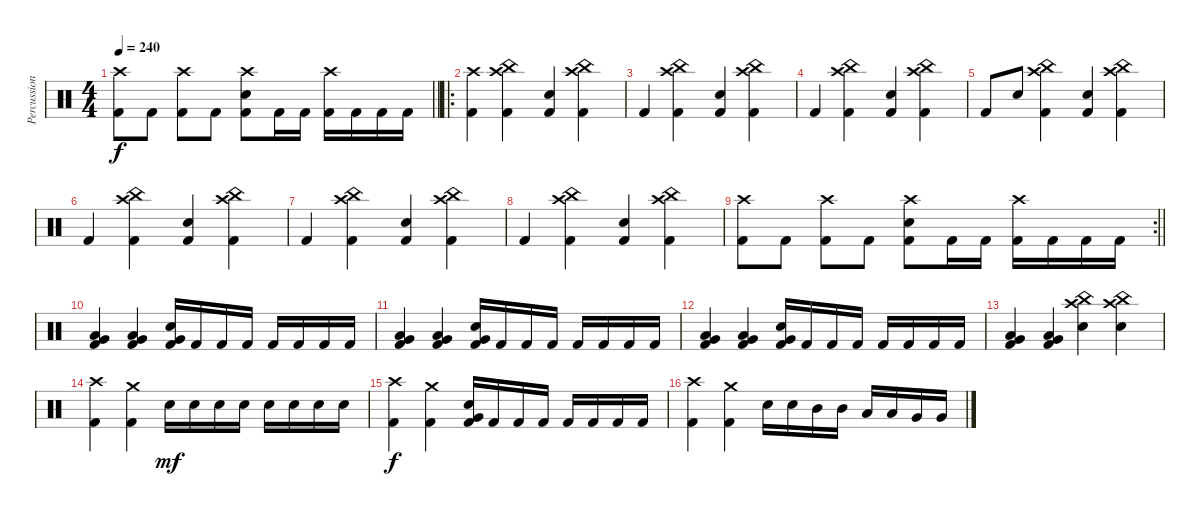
\track ("Percussion" "Percussion") {instrument percussion}
\staff {score}
\articulation defaults
\ts (4 4)
\tempo 240
\clef neutral
\barLineRight lightlight
\ks c
("Crash high (hit)" "Kick (hit) 2").8{dy f} "Kick (hit) 2".8 ("Crash high (hit)" "Kick (hit) 2").8 "Kick (hit) 2".8 ("Crash high (hit)" "Snare (hit) 2" "Kick (hit) 2").8 "Kick (hit) 2".16 "Kick (hit) 2".16 ("Crash high (hit)" "Kick (hit) 2").16 "Kick (hit) 2".16 "Kick (hit) 2".16 "Kick (hit) 2".16 |
\ro
("Crash high (hit)" "Kick (hit) 2").4 ("China (hit)" "Crash high (hit)" "Kick (hit) 2").4 ("Snare (hit) 2" "Kick (hit) 2").4 ("China (hit)" "Crash high (hit)" "Kick (hit) 2").4 |
"Kick (hit) 2".4 ("China (hit)" "Crash high (hit)" "Kick (hit) 2").4 ("Snare (hit) 2" "Kick (hit) 2").4 ("China (hit)" "Crash high (hit)" "Kick (hit) 2").4 |
"Kick (hit) 2".4 ("China (hit)" "Crash high (hit)" "Kick (hit) 2").4 ("Snare (hit) 2" "Kick (hit) 2").4 ("China (hit)" "Crash high (hit)" "Kick (hit) 2").4 |
"Kick (hit) 2".8 "Snare (hit) 2".8 ("China (hit)" "Crash high (hit)" "Kick (hit) 2").4 ("Snare (hit) 2" "Kick (hit) 2").4 ("China (hit)" "Crash high (hit)" "Kick (hit) 2").4 |
"Kick (hit) 2".4 ("China (hit)" "Crash high (hit)" "Kick (hit) 2").4 ("Snare (hit) 2" "Kick (hit) 2").4 ("China (hit)" "Crash high (hit)" "Kick (hit) 2").4 |
"Kick (hit) 2".4 ("China (hit)" "Crash high (hit)" "Kick (hit) 2").4 ("Snare (hit) 2" "Kick (hit) 2").4 ("China (hit)" "Crash high (hit)" "Kick (hit) 2").4 |
"Kick (hit) 2".4 ("China (hit)" "Crash high (hit)" "Kick (hit) 2").4 ("Snare (hit) 2" "Kick (hit) 2").4 ("China (hit)" "Crash high (hit)" "Kick (hit) 2").4 |
\rc 2
\barLineRight lightlight
("Crash high (hit)" "Kick (hit) 2").8 "Kick (hit) 2".8 ("Crash high (hit)" "Kick (hit) 2").8 "Kick (hit) 2".8 ("Crash high (hit)" "Snare (hit) 2" "Kick (hit) 2").8 "Kick (hit) 2".16 "Kick (hit) 2".16 ("Crash high (hit)" "Kick (hit) 2").16 "Kick (hit) 2".16 "Kick (hit) 2".16 "Kick (hit) 2".16 |
("Very Low Tom (hit)" "Low Floor Tom (hit)" "Kick (hit) 2").4 ("Very Low Tom (hit)" "Low Floor Tom (hit)" "Kick (hit) 2").4 ("Snare (hit) 2" "Very Low Tom (hit)" "Kick (hit) 2").16 "Kick (hit) 2".16 "Kick (hit) 2".16 "Kick (hit) 2".16 "Kick (hit) 2".16 "Kick (hit) 2".16 "Kick (hit) 2".16 "Kick (hit) 2".16 |
("Very Low Tom (hit)" "Low Floor Tom (hit)" "Kick (hit) 2").4 ("Very Low Tom (hit)" "Low Floor Tom (hit)" "Kick (hit) 2").4 ("Snare (hit) 2" "Very Low Tom (hit)" "Kick (hit) 2").16 "Kick (hit) 2".16 "Kick (hit) 2".16 "Kick (hit) 2".16 "Kick (hit) 2".16 "Kick (hit) 2".16 "Kick (hit) 2".16 "Kick (hit) 2".16 |
("Very Low Tom (hit)" "Low Floor Tom (hit)" "Kick (hit) 2").4 ("Very Low Tom (hit)" "Low Floor Tom (hit)" "Kick (hit) 2").4 ("Snare (hit) 2" "Very Low Tom (hit)" "Kick (hit) 2").16 "Kick (hit) 2".16 "Kick (hit) 2".16 "Kick (hit) 2".16 "Kick (hit) 2".16 "Kick (hit) 2".16 "Kick (hit) 2".16 "Kick (hit) 2".16 |
("Very Low Tom (hit)" "Low Floor Tom (hit)" "Kick (hit) 2").4 ("Very Low Tom (hit)" "Low Floor Tom (hit)" "Kick (hit) 2").4 ("China (hit)" "Crash high (hit)" "Snare (hit) 2").4 ("China (hit)" "Crash high (hit)" "Snare (hit) 2").4 |
("Crash high (hit)" "Kick (hit) 2").4 ("Crash medium (hit)" "Kick (hit) 2").4 "Snare (hit) 2".16{dy mf} "Snare (hit) 2".16 "Snare (hit) 2".16 "Snare (hit) 2".16 "Snare (hit) 2".16 "Snare (hit) 2".16 "Snare (hit) 2".16 "Snare (hit) 2".16 |
("Crash high (hit)" "Kick (hit) 2").4{dy f} ("Crash medium (hit)" "Kick (hit) 2").4 ("Snare (hit) 2" "Very Low Tom (hit)" "Kick (hit) 2").16 "Kick (hit) 2".16 "Kick (hit) 2".16 "Kick (hit) 2".16 "Kick (hit) 2".16 "Kick (hit) 2".16 "Kick (hit) 2".16 "Kick (hit) 2".16 |
("Crash high (hit)" "Kick (hit) 2").4 ("Crash medium (hit)" "Kick (hit) 2").4 "Snare (hit) 2".16 "Snare (hit) 2".16 "Mid Tom (hit)".16 "Mid Tom (hit)".16 "Low Tom (hit)".16 "Low Tom (hit)".16 "Very Low Tom (hit)".16 "Very Low Tom (hit)".16
